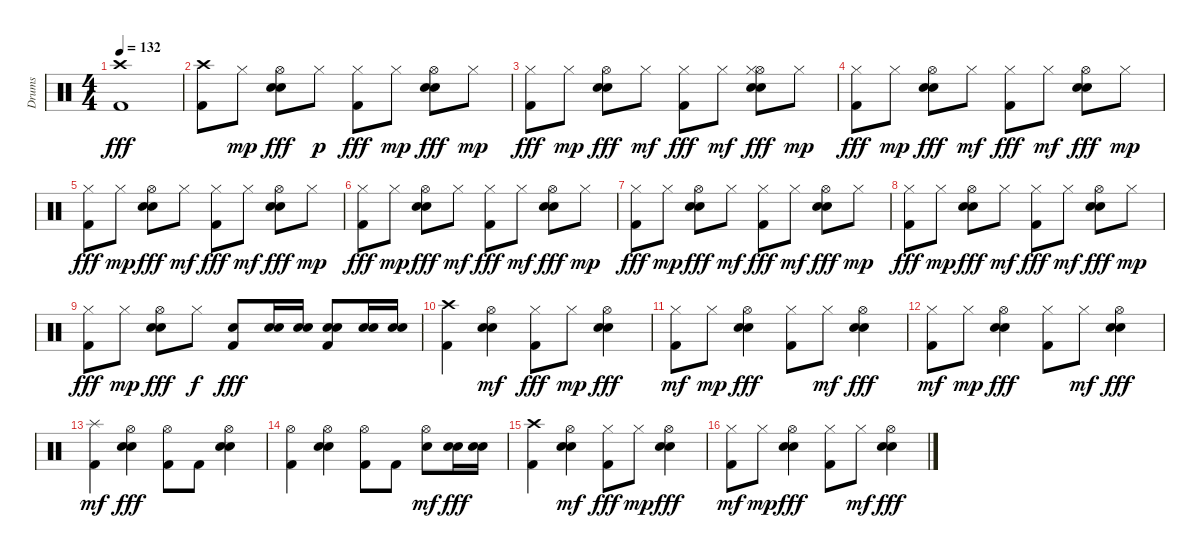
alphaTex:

\track ("Drums" "Drums") {instrument percussion}
\staff {score}
\articulation defaults
\ts (4 4)
\tempo 132
\clef neutral
\ks c
("Kick (hit) 2" "Crash high (hit)").1{dy fff} |
\section ("" "")
("Kick (hit) 2" "Crash high (hit)").8 "Hi-Hat (closed)".8{dy mp} ("Hi-Hat (open)" "Snare (hit) 2" "Electric Snare (hit)").8{dy fff} "Hi-Hat (closed)".8{dy p} ("Hi-Hat (closed)" "Kick (hit) 2").8{dy fff} "Hi-Hat (closed)".8{dy mp} ("Hi-Hat (open)" "Snare (hit) 2" "Electric Snare (hit)").8{dy fff} "Hi-Hat (closed)".8{dy mp} |
("Kick (hit) 2" "Hi-Hat (closed)").8{dy fff} "Hi-Hat (closed)".8{dy mp} ("Hi-Hat (open)" "Snare (hit) 2" "Electric Snare (hit)").8{dy fff} "Hi-Hat (closed)".8{dy mf} ("Hi-Hat (closed)" "Kick (hit) 2").8{dy fff} "Hi-Hat (closed)".8{dy mf} ("Hi-Hat (open)" "Snare (hit) 2" "Electric Snare (hit)" "Hi-Hat (closed)").8{dy fff} "Hi-Hat (closed)".8{dy mp} |
("Kick (hit) 2" "Hi-Hat (closed)").8{dy fff} "Hi-Hat (closed)".8{dy mp} ("Hi-Hat (open)" "Snare (hit) 2" "Electric Snare (hit)").8{dy fff} "Hi-Hat (closed)".8{dy mf} ("Hi-Hat (closed)" "Kick (hit) 2").8{dy fff} "Hi-Hat (closed)".8{dy mf} ("Hi-Hat (open)" "Snare (hit) 2" "Electric Snare (hit)").8{dy fff} "Hi-Hat (closed)".8{dy mp} |
("Kick (hit) 2" "Hi-Hat (closed)").8{dy fff} "Hi-Hat (closed)".8{dy mp} ("Hi-Hat (open)" "Snare (hit) 2" "Electric Snare (hit)").8{dy fff} "Hi-Hat (closed)".8{dy mf} ("Hi-Hat (closed)" "Kick (hit) 2").8{dy fff} "Hi-Hat (closed)".8{dy mf} ("Hi-Hat (open)" "Snare (hit) 2" "Electric Snare (hit)").8{dy fff} "Hi-Hat (closed)".8{dy mp} |
("Kick (hit) 2" "Hi-Hat (closed)").8{dy fff} "Hi-Hat (closed)".8{dy mp} ("Hi-Hat (open)" "Snare (hit) 2" "Electric Snare (hit)").8{dy fff} "Hi-Hat (closed)".8{dy mf} ("Hi-Hat (closed)" "Kick (hit) 2").8{dy fff} "Hi-Hat (closed)".8{dy mf} ("Hi-Hat (open)" "Snare (hit) 2" "Electric Snare (hit)").8{dy fff} "Hi-Hat (closed)".8{dy mp} |
("Kick (hit) 2" "Hi-Hat (closed)").8{dy fff} "Hi-Hat (closed)".8{dy mp} ("Hi-Hat (open)" "Snare (hit) 2" "Electric Snare (hit)").8{dy fff} "Hi-Hat (closed)".8{dy mf} ("Hi-Hat (closed)" "Kick (hit) 2").8{dy fff} "Hi-Hat (closed)".8{dy mf} ("Hi-Hat (open)" "Snare (hit) 2" "Electric Snare (hit)").8{dy fff} "Hi-Hat (closed)".8{dy mp} |
("Kick (hit) 2" "Hi-Hat (closed)").8{dy fff} "Hi-Hat (closed)".8{dy mp} ("Hi-Hat (open)" "Snare (hit) 2" "Electric Snare (hit)").8{dy fff} "Hi-Hat (closed)".8{dy mf} ("Hi-Hat (closed)" "Kick (hit) 2").8{dy fff} "Hi-Hat (closed)".8{dy mf} ("Hi-Hat (open)" "Snare (hit) 2" "Electric Snare (hit)").8{dy fff} "Hi-Hat (closed)".8{dy mp} |
\section ("" "")
("Hi-Hat (closed)" "Kick (hit) 2").8{dy fff} "Hi-Hat (closed)".8{dy mp} ("Hi-Hat (open)" "Snare (hit) 2" "Electric Snare (hit)").8{dy fff} "Hi-Hat (closed)".8{dy f} ("Snare (hit) 2" "Kick (hit) 2").8{dy fff} ("Snare (hit) 2" "Electric Snare (hit)").16 ("Snare (hit) 2" "Electric Snare (hit)").16 ("Snare (hit) 2" "Kick (hit) 2" "Electric Snare (hit)").8 ("Snare (hit) 2" "Electric Snare (hit)").16 ("Snare (hit) 2" "Electric Snare (hit)").16 |
("Kick (hit) 2" "Crash high (hit)").4 ("Snare (hit) 2" "Hi-Hat (open)" "Electric Snare (hit)").4{dy mf} ("Hi-Hat (closed)" "Kick (hit) 2").8{dy fff} "Hi-Hat (closed)".8{dy mp} ("Hi-Hat (open)" "Snare (hit) 2" "Electric Snare (hit)").4{dy fff} |
("Kick (hit) 2" "Hi-Hat (closed)").8{dy mf} "Hi-Hat (closed)".8{dy mp} ("Hi-Hat (open)" "Snare (hit) 2" "Electric Snare (hit)").4{dy fff} ("Kick (hit) 2" "Hi-Hat (closed)").8 "Hi-Hat (closed)".8{dy mf} ("Hi-Hat (open)" "Snare (hit) 2" "Electric Snare (hit)").4{dy fff} |
("Kick (hit) 2" "Hi-Hat (closed)").8{dy mf} "Hi-Hat (closed)".8{dy mp} ("Hi-Hat (open)" "Snare (hit) 2" "Electric Snare (hit)").4{dy fff} ("Kick (hit) 2" "Hi-Hat (closed)").8 "Hi-Hat (closed)".8{dy mf} ("Hi-Hat (open)" "Snare (hit) 2" "Electric Snare (hit)").4{dy fff} |
("Kick (hit) 2" "Splash (hit)").4{dy mf} ("Hi-Hat (open)" "Snare (hit) 2" "Electric Snare (hit)").4{dy fff} ("Hi-Hat (open)" "Kick (hit) 2").8 "Kick (hit) 2".8 ("Hi-Hat (open)" "Snare (hit) 2" "Electric Snare (hit)").4 |
("Hi-Hat (open)" "Kick (hit) 2").4 ("Hi-Hat (open)" "Snare (hit) 2" "Electric Snare (hit)").4 ("Hi-Hat (open)" "Kick (hit) 2").8 "Kick (hit) 2".8 ("Snare (hit) 2" "Hi-Hat (open)").8{dy mf} ("Snare (hit) 2" "Electric Snare (hit)").16{dy fff} ("Snare (hit) 2" "Electric Snare (hit)").16 |
("Kick (hit) 2" "Crash high (hit)").4 ("Snare (hit) 2" "Hi-Hat (open)" "Electric Snare (hit)").4{dy mf} ("Hi-Hat (closed)" "Kick (hit) 2").8{dy fff} "Hi-Hat (closed)".8{dy mp} ("Hi-Hat (open)" "Snare (hit) 2" "Electric Snare (hit)").4{dy fff} |
("Kick (hit) 2" "Hi-Hat (closed)").8{dy mf} "Hi-Hat (closed)".8{dy mp} ("Hi-Hat (open)" "Snare (hit) 2" "Electric Snare (hit)").4{dy fff} ("Kick (hit) 2" "Hi-Hat (closed)").8 "Hi-Hat (closed)".8{dy mf} ("Hi-Hat (open)" "Snare (hit) 2" "Electric Snare (hit)").4{dy fff}
